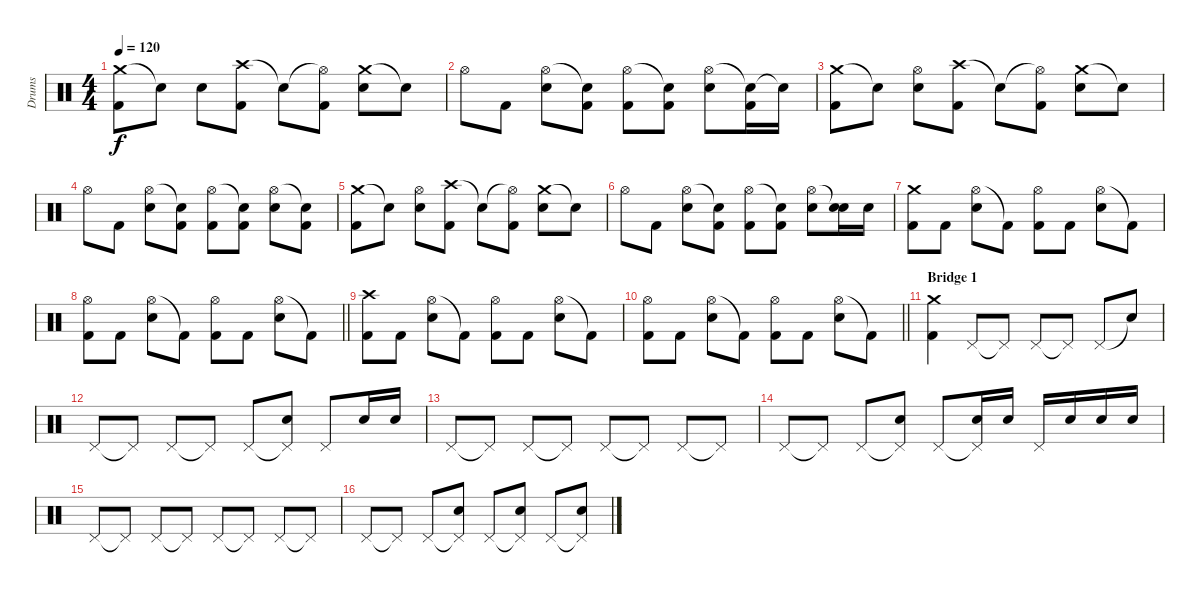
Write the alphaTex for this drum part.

\track ("Drums" "Drums") {instrument percussion}
\staff {score}
\articulation defaults
\ts (4 4)
\tempo 120
\clef neutral
\ks c
("Crash medium (hit)" "Kick (hit) 2").8{dy f} "Snare (hit)"{t}.8 "Snare (hit) 2".8 ("Crash high (hit)" "Kick (hit) 2").8 "Snare (hit)"{t}.8 ("Hi-Hat (open)"{t} "Kick (hit) 2").8 ("Crash medium (hit)" "Snare (hit) 2").8 "Snare (hit)"{t}.8 |
"Hi-Hat (open)".8 "Kick (hit) 2".8 ("Hi-Hat (open)" "Snare (hit) 2").8 ("Snare (hit)"{t} "Kick (hit) 2").8 ("Hi-Hat (open)" "Kick (hit) 2").8 ("Snare (hit)"{t} "Kick (hit) 2").8 ("Hi-Hat (open)" "Snare (hit) 2").8 ("Snare (hit)"{t} "Kick (hit) 2").16 "Snare (hit)"{t}.16 |
("Crash medium (hit)" "Kick (hit) 2").8 "Snare (hit)"{t}.8 ("Hi-Hat (open)" "Snare (hit) 2").8 ("Crash high (hit)" "Kick (hit) 2").8 "Snare (hit)"{t}.8 ("Hi-Hat (open)"{t} "Kick (hit) 2").8 ("Crash medium (hit)" "Snare (hit) 2").8 "Snare (hit)"{t}.8 |
"Hi-Hat (open)".8 "Kick (hit) 2".8 ("Hi-Hat (open)" "Snare (hit) 2").8 ("Snare (hit)"{t} "Kick (hit) 2").8 ("Hi-Hat (open)" "Kick (hit) 2").8 ("Snare (hit)"{t} "Kick (hit) 2").8 ("Hi-Hat (open)" "Snare (hit) 2").8 ("Snare (hit)"{t} "Kick (hit) 2").8 |
("Crash medium (hit)" "Kick (hit) 2").8 "Snare (hit)"{t}.8 ("Hi-Hat (open)" "Snare (hit) 2").8 ("Crash high (hit)" "Kick (hit) 2").8 "Snare (hit)"{t}.8 ("Hi-Hat (open)"{t} "Kick (hit) 2").8 ("Crash medium (hit)" "Snare (hit) 2").8 "Snare (hit)"{t}.8 |
"Hi-Hat (open)".8 "Kick (hit) 2".8 ("Hi-Hat (open)" "Snare (hit) 2").8 ("Snare (hit)"{t} "Kick (hit) 2").8 ("Hi-Hat (open)" "Kick (hit) 2").8 ("Snare (hit)"{t} "Kick (hit) 2").8 ("Hi-Hat (open)" "Snare (hit) 2").8 ("Snare (hit)"{t} "Snare (hit) 2").16 "Snare (hit) 2".16 |
("Crash medium (hit)" "Kick (hit) 2").8 "Kick (hit) 2".8 ("Hi-Hat (open)" "Snare (hit) 2").8 "Kick (hit) 2"{t}.8 ("Hi-Hat (open)" "Kick (hit) 2").8 "Kick (hit) 2".8 ("Hi-Hat (open)" "Snare (hit) 2").8 "Kick (hit) 2"{t}.8 |
\barLineRight lightlight
("Hi-Hat (open)" "Kick (hit) 2").8 "Kick (hit) 2".8 ("Hi-Hat (open)" "Snare (hit) 2").8 "Kick (hit) 2"{t}.8 ("Hi-Hat (open)" "Kick (hit) 2").8 "Kick (hit) 2".8 ("Hi-Hat (open)" "Snare (hit) 2").8 "Kick (hit) 2"{t}.8 |
("Crash high (hit)" "Kick (hit) 2").8 "Kick (hit) 2".8 ("Hi-Hat (open)" "Snare (hit) 2").8 "Kick (hit) 2"{t}.8 ("Hi-Hat (open)" "Kick (hit) 2").8 "Kick (hit) 2".8 ("Hi-Hat (open)" "Snare (hit) 2").8 "Kick (hit) 2"{t}.8 |
\barLineRight lightlight
("Hi-Hat (open)" "Kick (hit) 2").8 "Kick (hit) 2".8 ("Hi-Hat (open)" "Snare (hit) 2").8 "Kick (hit) 2"{t}.8 ("Hi-Hat (open)" "Kick (hit) 2").8 "Kick (hit) 2".8 ("Hi-Hat (open)" "Snare (hit) 2").8 "Kick (hit) 2"{t}.8 |
\section ("" "Bridge 1")
("Crash medium (hit)" "Kick (hit) 2").4 "Pedal Hi-Hat (hit)".8 "Pedal Hi-Hat (hit)"{t}.8 "Pedal Hi-Hat (hit)".8 "Pedal Hi-Hat (hit)"{t}.8 "Pedal Hi-Hat (hit)".8 "Snare (hit)"{t}.8 |
"Pedal Hi-Hat (hit)".8 "Pedal Hi-Hat (hit)"{t}.8 "Pedal Hi-Hat (hit)".8 "Pedal Hi-Hat (hit)"{t}.8 "Pedal Hi-Hat (hit)".8 ("Pedal Hi-Hat (hit)"{t} "Snare (hit) 2").8 "Pedal Hi-Hat (hit)".8 "Snare (hit) 2".16 "Snare (hit) 2".16 |
"Pedal Hi-Hat (hit)".8 "Pedal Hi-Hat (hit)"{t}.8 "Pedal Hi-Hat (hit)".8 "Pedal Hi-Hat (hit)"{t}.8 "Pedal Hi-Hat (hit)".8 "Pedal Hi-Hat (hit)"{t}.8 "Pedal Hi-Hat (hit)".8 "Pedal Hi-Hat (hit)"{t}.8 |
"Pedal Hi-Hat (hit)".8 "Pedal Hi-Hat (hit)"{t}.8 "Pedal Hi-Hat (hit)".8 ("Pedal Hi-Hat (hit)"{t} "Snare (hit) 2").8 "Pedal Hi-Hat (hit)".8 ("Pedal Hi-Hat (hit)"{t} "Snare (hit) 2").16 "Snare (hit) 2".16 "Pedal Hi-Hat (hit)".16 "Snare (hit) 2".16 "Snare (hit) 2".16 "Snare (hit) 2".16 |
"Pedal Hi-Hat (hit)".8 "Pedal Hi-Hat (hit)"{t}.8 "Pedal Hi-Hat (hit)".8 "Pedal Hi-Hat (hit)"{t}.8 "Pedal Hi-Hat (hit)".8 "Pedal Hi-Hat (hit)"{t}.8 "Pedal Hi-Hat (hit)".8 "Pedal Hi-Hat (hit)"{t}.8 |
"Pedal Hi-Hat (hit)".8 "Pedal Hi-Hat (hit)"{t}.8 "Pedal Hi-Hat (hit)".8 ("Pedal Hi-Hat (hit)"{t} "Snare (hit) 2").8 "Pedal Hi-Hat (hit)".8 ("Pedal Hi-Hat (hit)"{t} "Snare (hit) 2").8 "Pedal Hi-Hat (hit)".8 ("Pedal Hi-Hat (hit)"{t} "Snare (hit) 2").8
